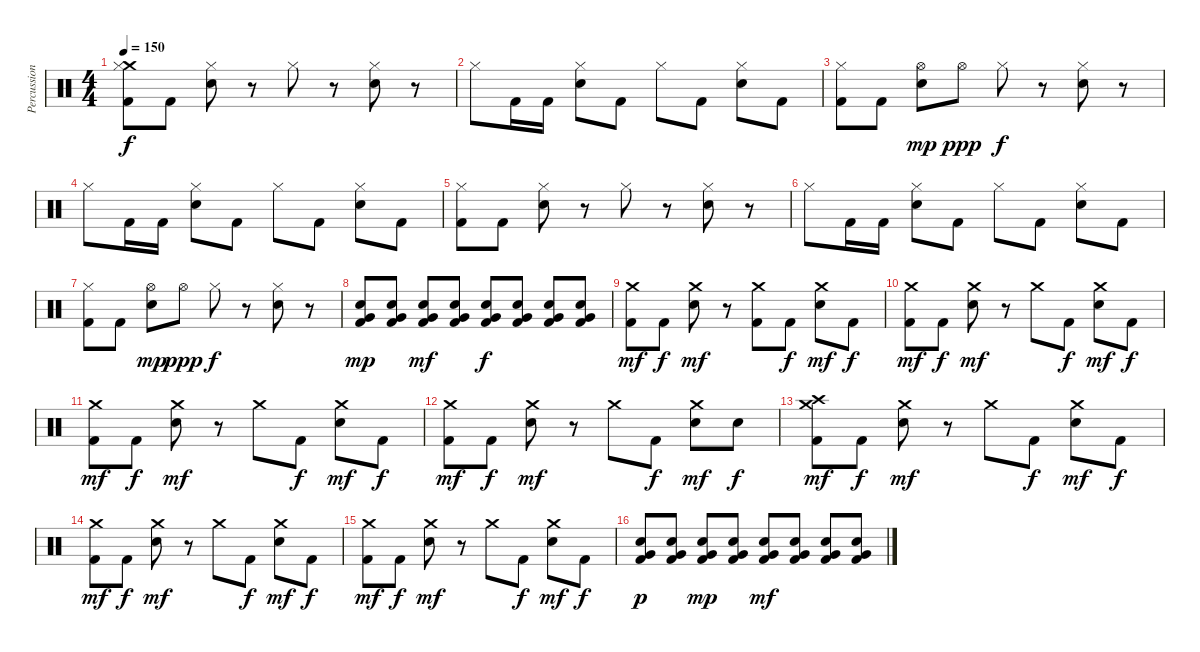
\track ("Percussion" "Percussion") {instrument percussion}
\staff {score}
\articulation defaults
\ts (4 4)
\tempo 150
\clef neutral
\ks c
("Crash medium (hit)" "Hi-Hat (closed)" "Kick (hit) 2").8{dy f} "Kick (hit) 2".8 ("Hi-Hat (closed)" "Electric Snare (hit)").8 r.8 "Hi-Hat (closed)".8 r.8 ("Hi-Hat (closed)" "Electric Snare (hit)").8 r.8 |
"Hi-Hat (closed)".8 "Kick (hit) 2".16 "Kick (hit) 2".16 ("Hi-Hat (closed)" "Electric Snare (hit)").8 "Kick (hit) 2".8 "Hi-Hat (closed)".8 "Kick (hit) 2".8 ("Hi-Hat (closed)" "Electric Snare (hit)").8 "Kick (hit) 2".8 |
("Hi-Hat (closed)" "Kick (hit) 2").8 "Kick (hit) 2".8 ("Hi-Hat (open)" "Electric Snare (hit)").8{dy mp} "Hi-Hat (open)".8{dy ppp} "Hi-Hat (closed)".8{dy f} r.8 ("Hi-Hat (closed)" "Electric Snare (hit)").8 r.8 |
"Hi-Hat (closed)".8 "Kick (hit) 2".16 "Kick (hit) 2".16 ("Hi-Hat (closed)" "Electric Snare (hit)").8 "Kick (hit) 2".8 "Hi-Hat (closed)".8 "Kick (hit) 2".8 ("Hi-Hat (closed)" "Electric Snare (hit)").8 "Kick (hit) 2".8 |
("Hi-Hat (closed)" "Kick (hit) 2").8 "Kick (hit) 2".8 ("Hi-Hat (closed)" "Electric Snare (hit)").8 r.8 "Hi-Hat (closed)".8 r.8 ("Hi-Hat (closed)" "Electric Snare (hit)").8 r.8 |
"Hi-Hat (closed)".8 "Kick (hit) 2".16 "Kick (hit) 2".16 ("Hi-Hat (closed)" "Electric Snare (hit)").8 "Kick (hit) 2".8 "Hi-Hat (closed)".8 "Kick (hit) 2".8 ("Hi-Hat (closed)" "Electric Snare (hit)").8 "Kick (hit) 2".8 |
("Hi-Hat (closed)" "Kick (hit) 2").8 "Kick (hit) 2".8 ("Hi-Hat (open)" "Electric Snare (hit)").8{dy mp} "Hi-Hat (open)".8{dy ppp} "Hi-Hat (closed)".8{dy f} r.8 ("Hi-Hat (closed)" "Electric Snare (hit)").8 r.8 |
("Kick (hit) 2" "Electric Snare (hit)" "Very Low Tom (hit)").8{dy mp} ("Kick (hit) 2" "Electric Snare (hit)" "Very Low Tom (hit)").8 ("Kick (hit) 2" "Electric Snare (hit)" "Very Low Tom (hit)").8{dy mf} ("Kick (hit) 2" "Electric Snare (hit)" "Very Low Tom (hit)").8 ("Kick (hit) 2" "Electric Snare (hit)" "Very Low Tom (hit)").8{dy f} ("Kick (hit) 2" "Electric Snare (hit)" "Very Low Tom (hit)").8 ("Kick (hit) 2" "Electric Snare (hit)" "Very Low Tom (hit)").8 ("Kick (hit) 2" "Electric Snare (hit)" "Very Low Tom (hit)").8 |
("Crash medium (hit)" "Kick (hit) 2").8{dy mf} "Kick (hit) 2".8{dy f} ("Crash medium (hit)" "Electric Snare (hit)").8{dy mf} r.8 ("Crash medium (hit)" "Kick (hit) 2").8 "Kick (hit) 2".8{dy f} ("Crash medium (hit)" "Electric Snare (hit)").8{dy mf} "Kick (hit) 2".8{dy f} |
("Crash medium (hit)" "Kick (hit) 2").8{dy mf} "Kick (hit) 2".8{dy f} ("Crash medium (hit)" "Electric Snare (hit)").8{dy mf} r.8 "Crash medium (hit)".8 "Kick (hit) 2".8{dy f} ("Crash medium (hit)" "Electric Snare (hit)").8{dy mf} "Kick (hit) 2".8{dy f} |
("Crash medium (hit)" "Kick (hit) 2").8{dy mf} "Kick (hit) 2".8{dy f} ("Crash medium (hit)" "Electric Snare (hit)").8{dy mf} r.8 "Crash medium (hit)".8 "Kick (hit) 2".8{dy f} ("Crash medium (hit)" "Electric Snare (hit)").8{dy mf} "Kick (hit) 2".8{dy f} |
("Crash medium (hit)" "Kick (hit) 2").8{dy mf} "Kick (hit) 2".8{dy f} ("Crash medium (hit)" "Electric Snare (hit)").8{dy mf} r.8 "Crash medium (hit)".8 "Kick (hit) 2".8{dy f} ("Crash medium (hit)" "Electric Snare (hit)").8{dy mf} "Electric Snare (hit)".8{dy f} |
("Crash high (hit)" "Crash medium (hit)" "Kick (hit) 2").8{dy mf} "Kick (hit) 2".8{dy f} ("Crash medium (hit)" "Electric Snare (hit)").8{dy mf} r.8 "Crash medium (hit)".8 "Kick (hit) 2".8{dy f} ("Crash medium (hit)" "Electric Snare (hit)").8{dy mf} "Kick (hit) 2".8{dy f} |
("Crash medium (hit)" "Kick (hit) 2").8{dy mf} "Kick (hit) 2".8{dy f} ("Crash medium (hit)" "Electric Snare (hit)").8{dy mf} r.8 "Crash medium (hit)".8 "Kick (hit) 2".8{dy f} ("Crash medium (hit)" "Electric Snare (hit)").8{dy mf} "Kick (hit) 2".8{dy f} |
("Crash medium (hit)" "Kick (hit) 2").8{dy mf} "Kick (hit) 2".8{dy f} ("Crash medium (hit)" "Electric Snare (hit)").8{dy mf} r.8 "Crash medium (hit)".8 "Kick (hit) 2".8{dy f} ("Crash medium (hit)" "Electric Snare (hit)").8{dy mf} "Kick (hit) 2".8{dy f} |
("Electric Snare (hit)" "Very Low Tom (hit)" "Kick (hit) 2").8{dy p} ("Electric Snare (hit)" "Very Low Tom (hit)" "Kick (hit) 2").8 ("Electric Snare (hit)" "Very Low Tom (hit)" "Kick (hit) 2").8{dy mp} ("Electric Snare (hit)" "Very Low Tom (hit)" "Kick (hit) 2").8 ("Electric Snare (hit)" "Very Low Tom (hit)" "Kick (hit) 2").8{dy mf} ("Electric Snare (hit)" "Very Low Tom (hit)" "Kick (hit) 2").8 ("Electric Snare (hit)" "Very Low Tom (hit)" "Kick (hit) 2").8 ("Electric Snare (hit)" "Very Low Tom (hit)" "Kick (hit) 2").8
